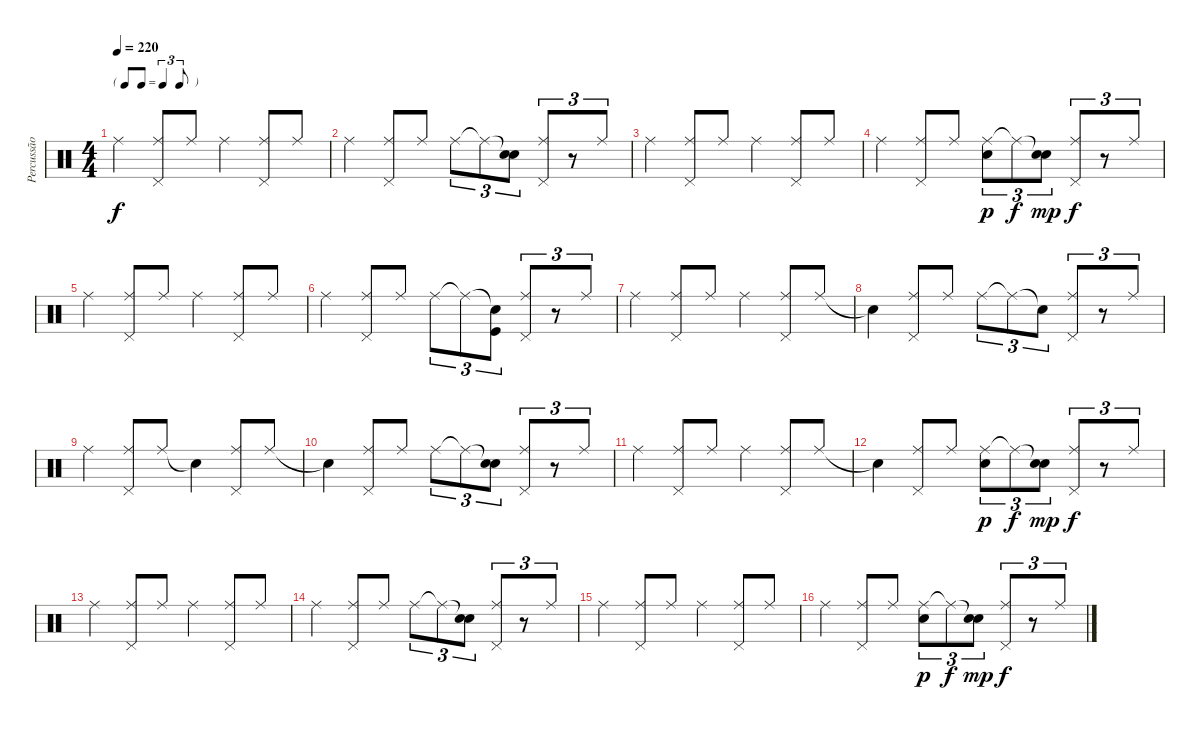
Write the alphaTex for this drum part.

\track ("Percussão" "Percussão") {instrument percussion}
\staff {score}
\articulation defaults
\ts (4 4)
\tf triplet8th
\tempo 220
\clef neutral
\ks c "Ride (middle)".4{dy f}
("Ride (middle)" "Pedal Hi-Hat (hit)").8 "Ride (middle)".8 "Ride (middle)".4 ("Ride (middle)" "Pedal Hi-Hat (hit)").8 "Ride (middle)".8 |
"Ride (middle)".4 ("Ride (middle)" "Pedal Hi-Hat (hit)").8 "Ride (middle)".8 "Ride (middle)".8{tu (3 2)} "Ride (middle)"{t}.8{tu (3 2)} ("Snare (hit)"{t} "Electric Snare (hit)").8{tu (3 2)} ("Ride (middle)" "Pedal Hi-Hat (hit)").8{tu (3 2)} r.8{tu (3 2)} "Ride (middle)".8{tu (3 2)} |
"Ride (middle)".4 ("Ride (middle)" "Pedal Hi-Hat (hit)").8 "Ride (middle)".8 "Ride (middle)".4 ("Ride (middle)" "Pedal Hi-Hat (hit)").8 "Ride (middle)".8 |
"Ride (middle)".4 ("Ride (middle)" "Pedal Hi-Hat (hit)").8 "Ride (middle)".8 ("Ride (middle)" "Electric Snare (hit)").8{tu (3 2) dy p} "Ride (middle)"{t}.8{tu (3 2) dy f} ("Snare (hit)"{t} "Electric Snare (hit)").8{tu (3 2) dy mp} ("Ride (middle)" "Pedal Hi-Hat (hit)").8{tu (3 2) dy f} r.8{tu (3 2)} "Ride (middle)".8{tu (3 2)} |
"Ride (middle)".4 ("Ride (middle)" "Pedal Hi-Hat (hit)").8 "Ride (middle)".8 "Ride (middle)".4 ("Ride (middle)" "Pedal Hi-Hat (hit)").8 "Ride (middle)".8 |
"Ride (middle)".4 ("Ride (middle)" "Pedal Hi-Hat (hit)").8 "Ride (middle)".8 "Ride (middle)".8{tu (3 2)} "Ride (middle)"{t}.8{tu (3 2)} ("Snare (hit)"{t} "Kick (hit)").8{tu (3 2)} ("Ride (middle)" "Pedal Hi-Hat (hit)").8{tu (3 2)} r.8{tu (3 2)} "Ride (middle)".8{tu (3 2)} |
"Ride (middle)".4 ("Ride (middle)" "Pedal Hi-Hat (hit)").8 "Ride (middle)".8 "Ride (middle)".4 ("Ride (middle)" "Pedal Hi-Hat (hit)").8 "Ride (middle)".8 |
"Snare (hit)"{t}.4 ("Ride (middle)" "Pedal Hi-Hat (hit)").8 "Ride (middle)".8 "Ride (middle)".8{tu (3 2)} "Ride (middle)"{t}.8{tu (3 2)} "Snare (hit)"{t}.8{tu (3 2)} ("Ride (middle)" "Pedal Hi-Hat (hit)").8{tu (3 2)} r.8{tu (3 2)} "Ride (middle)".8{tu (3 2)} |
"Ride (middle)".4 ("Ride (middle)" "Pedal Hi-Hat (hit)").8 "Ride (middle)".8 "Snare (hit)"{t}.4 ("Ride (middle)" "Pedal Hi-Hat (hit)").8 "Ride (middle)".8 |
"Snare (hit)"{t}.4 ("Ride (middle)" "Pedal Hi-Hat (hit)").8 "Ride (middle)".8 "Ride (middle)".8{tu (3 2)} "Ride (middle)"{t}.8{tu (3 2)} ("Snare (hit)"{t} "Electric Snare (hit)").8{tu (3 2)} ("Ride (middle)" "Pedal Hi-Hat (hit)").8{tu (3 2)} r.8{tu (3 2)} "Ride (middle)".8{tu (3 2)} |
"Ride (middle)".4 ("Ride (middle)" "Pedal Hi-Hat (hit)").8 "Ride (middle)".8 "Ride (middle)".4 ("Ride (middle)" "Pedal Hi-Hat (hit)").8 "Ride (middle)".8 |
"Snare (hit)"{t}.4 ("Ride (middle)" "Pedal Hi-Hat (hit)").8 "Ride (middle)".8 ("Ride (middle)" "Electric Snare (hit)").8{tu (3 2) dy p} "Ride (middle)"{t}.8{tu (3 2) dy f} ("Snare (hit)"{t} "Electric Snare (hit)").8{tu (3 2) dy mp} ("Ride (middle)" "Pedal Hi-Hat (hit)").8{tu (3 2) dy f} r.8{tu (3 2)} "Ride (middle)".8{tu (3 2)} |
"Ride (middle)".4 ("Ride (middle)" "Pedal Hi-Hat (hit)").8 "Ride (middle)".8 "Ride (middle)".4 ("Ride (middle)" "Pedal Hi-Hat (hit)").8 "Ride (middle)".8 |
"Ride (middle)".4 ("Ride (middle)" "Pedal Hi-Hat (hit)").8 "Ride (middle)".8 "Ride (middle)".8{tu (3 2)} "Ride (middle)"{t}.8{tu (3 2)} ("Snare (hit)"{t} "Electric Snare (hit)").8{tu (3 2)} ("Ride (middle)" "Pedal Hi-Hat (hit)").8{tu (3 2)} r.8{tu (3 2)} "Ride (middle)".8{tu (3 2)} |
"Ride (middle)".4 ("Ride (middle)" "Pedal Hi-Hat (hit)").8 "Ride (middle)".8 "Ride (middle)".4 ("Ride (middle)" "Pedal Hi-Hat (hit)").8 "Ride (middle)".8 |
"Ride (middle)".4 ("Ride (middle)" "Pedal Hi-Hat (hit)").8 "Ride (middle)".8 ("Ride (middle)" "Electric Snare (hit)").8{tu (3 2) dy p} "Ride (middle)"{t}.8{tu (3 2) dy f} ("Snare (hit)"{t} "Electric Snare (hit)").8{tu (3 2) dy mp} ("Ride (middle)" "Pedal Hi-Hat (hit)").8{tu (3 2) dy f} r.8{tu (3 2)} "Ride (middle)".8{tu (3 2)}
